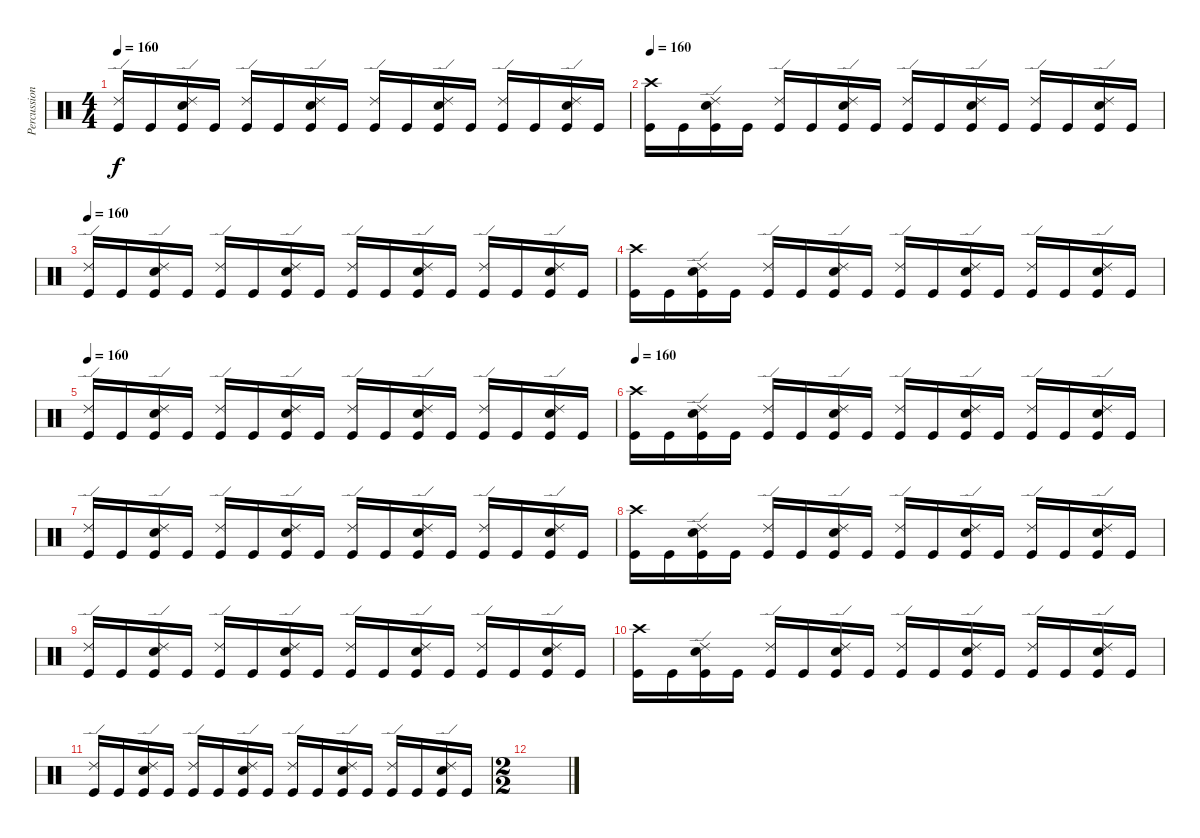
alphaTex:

\track ("Percussion(Satish)" "Percussion") {instrument percussion}
\staff {score}
\articulation defaults
\ts (4 4)
\tempo 160
\clef neutral
\ks c
("Ride (edge) 2" "Kick (hit)").16{dy f} "Kick (hit)".16 ("Ride (edge) 2" "Electric Snare (hit)" "Kick (hit)").16 "Kick (hit)".16 ("Ride (edge) 2" "Kick (hit)").16 "Kick (hit)".16 ("Ride (edge) 2" "Electric Snare (hit)" "Kick (hit)").16 "Kick (hit)".16 ("Ride (edge) 2" "Kick (hit)").16 "Kick (hit)".16 ("Ride (edge) 2" "Electric Snare (hit)" "Kick (hit)").16 "Kick (hit)".16 ("Ride (edge) 2" "Kick (hit)").16 "Kick (hit)".16 ("Ride (edge) 2" "Electric Snare (hit)" "Kick (hit)").16 "Kick (hit)".16 |
\tempo 160
("Crash high (hit)" "Kick (hit)").16 "Kick (hit)".16 ("Ride (edge) 2" "Electric Snare (hit)" "Kick (hit)").16 "Kick (hit)".16 ("Ride (edge) 2" "Kick (hit)").16 "Kick (hit)".16 ("Ride (edge) 2" "Electric Snare (hit)" "Kick (hit)").16 "Kick (hit)".16 ("Ride (edge) 2" "Kick (hit)").16 "Kick (hit)".16 ("Ride (edge) 2" "Electric Snare (hit)" "Kick (hit)").16 "Kick (hit)".16 ("Ride (edge) 2" "Kick (hit)").16 "Kick (hit)".16 ("Ride (edge) 2" "Electric Snare (hit)" "Kick (hit)").16 "Kick (hit)".16 |
\tempo 160
("Ride (edge) 2" "Kick (hit)").16 "Kick (hit)".16 ("Ride (edge) 2" "Electric Snare (hit)" "Kick (hit)").16 "Kick (hit)".16 ("Ride (edge) 2" "Kick (hit)").16 "Kick (hit)".16 ("Ride (edge) 2" "Electric Snare (hit)" "Kick (hit)").16 "Kick (hit)".16 ("Ride (edge) 2" "Kick (hit)").16 "Kick (hit)".16 ("Ride (edge) 2" "Electric Snare (hit)" "Kick (hit)").16 "Kick (hit)".16 ("Ride (edge) 2" "Kick (hit)").16 "Kick (hit)".16 ("Ride (edge) 2" "Electric Snare (hit)" "Kick (hit)").16 "Kick (hit)".16 |
("Crash high (hit)" "Kick (hit)").16 "Kick (hit)".16 ("Ride (edge) 2" "Electric Snare (hit)" "Kick (hit)").16 "Kick (hit)".16 ("Ride (edge) 2" "Kick (hit)").16 "Kick (hit)".16 ("Ride (edge) 2" "Electric Snare (hit)" "Kick (hit)").16 "Kick (hit)".16 ("Ride (edge) 2" "Kick (hit)").16 "Kick (hit)".16 ("Ride (edge) 2" "Electric Snare (hit)" "Kick (hit)").16 "Kick (hit)".16 ("Ride (edge) 2" "Kick (hit)").16 "Kick (hit)".16 ("Ride (edge) 2" "Electric Snare (hit)" "Kick (hit)").16 "Kick (hit)".16 |
\tempo 160
("Ride (edge) 2" "Kick (hit)").16 "Kick (hit)".16 ("Ride (edge) 2" "Electric Snare (hit)" "Kick (hit)").16 "Kick (hit)".16 ("Ride (edge) 2" "Kick (hit)").16 "Kick (hit)".16 ("Ride (edge) 2" "Electric Snare (hit)" "Kick (hit)").16 "Kick (hit)".16 ("Ride (edge) 2" "Kick (hit)").16 "Kick (hit)".16 ("Ride (edge) 2" "Electric Snare (hit)" "Kick (hit)").16 "Kick (hit)".16 ("Ride (edge) 2" "Kick (hit)").16 "Kick (hit)".16 ("Ride (edge) 2" "Electric Snare (hit)" "Kick (hit)").16 "Kick (hit)".16 |
\tempo 160
("Crash high (hit)" "Kick (hit)").16 "Kick (hit)".16 ("Ride (edge) 2" "Electric Snare (hit)" "Kick (hit)").16 "Kick (hit)".16 ("Ride (edge) 2" "Kick (hit)").16 "Kick (hit)".16 ("Ride (edge) 2" "Electric Snare (hit)" "Kick (hit)").16 "Kick (hit)".16 ("Ride (edge) 2" "Kick (hit)").16 "Kick (hit)".16 ("Ride (edge) 2" "Electric Snare (hit)" "Kick (hit)").16 "Kick (hit)".16 ("Ride (edge) 2" "Kick (hit)").16 "Kick (hit)".16 ("Ride (edge) 2" "Electric Snare (hit)" "Kick (hit)").16 "Kick (hit)".16 |
("Ride (edge) 2" "Kick (hit)").16 "Kick (hit)".16 ("Ride (edge) 2" "Electric Snare (hit)" "Kick (hit)").16 "Kick (hit)".16 ("Ride (edge) 2" "Kick (hit)").16 "Kick (hit)".16 ("Ride (edge) 2" "Electric Snare (hit)" "Kick (hit)").16 "Kick (hit)".16 ("Ride (edge) 2" "Kick (hit)").16 "Kick (hit)".16 ("Ride (edge) 2" "Electric Snare (hit)" "Kick (hit)").16 "Kick (hit)".16 ("Ride (edge) 2" "Kick (hit)").16 "Kick (hit)".16 ("Ride (edge) 2" "Electric Snare (hit)" "Kick (hit)").16 "Kick (hit)".16 |
("Crash high (hit)" "Kick (hit)").16 "Kick (hit)".16 ("Ride (edge) 2" "Electric Snare (hit)" "Kick (hit)").16 "Kick (hit)".16 ("Ride (edge) 2" "Kick (hit)").16 "Kick (hit)".16 ("Ride (edge) 2" "Electric Snare (hit)" "Kick (hit)").16 "Kick (hit)".16 ("Ride (edge) 2" "Kick (hit)").16 "Kick (hit)".16 ("Ride (edge) 2" "Electric Snare (hit)" "Kick (hit)").16 "Kick (hit)".16 ("Ride (edge) 2" "Kick (hit)").16 "Kick (hit)".16 ("Ride (edge) 2" "Electric Snare (hit)" "Kick (hit)").16 "Kick (hit)".16 |
("Ride (edge) 2" "Kick (hit)").16 "Kick (hit)".16 ("Ride (edge) 2" "Electric Snare (hit)" "Kick (hit)").16 "Kick (hit)".16 ("Ride (edge) 2" "Kick (hit)").16 "Kick (hit)".16 ("Ride (edge) 2" "Electric Snare (hit)" "Kick (hit)").16 "Kick (hit)".16 ("Ride (edge) 2" "Kick (hit)").16 "Kick (hit)".16 ("Ride (edge) 2" "Electric Snare (hit)" "Kick (hit)").16 "Kick (hit)".16 ("Ride (edge) 2" "Kick (hit)").16 "Kick (hit)".16 ("Ride (edge) 2" "Electric Snare (hit)" "Kick (hit)").16 "Kick (hit)".16 |
("Crash high (hit)" "Kick (hit)").16 "Kick (hit)".16 ("Ride (edge) 2" "Electric Snare (hit)" "Kick (hit)").16 "Kick (hit)".16 ("Ride (edge) 2" "Kick (hit)").16 "Kick (hit)".16 ("Ride (edge) 2" "Electric Snare (hit)" "Kick (hit)").16 "Kick (hit)".16 ("Ride (edge) 2" "Kick (hit)").16 "Kick (hit)".16 ("Ride (edge) 2" "Electric Snare (hit)" "Kick (hit)").16 "Kick (hit)".16 ("Ride (edge) 2" "Kick (hit)").16 "Kick (hit)".16 ("Ride (edge) 2" "Electric Snare (hit)" "Kick (hit)").16 "Kick (hit)".16 |
("Ride (edge) 2" "Kick (hit)").16 "Kick (hit)".16 ("Ride (edge) 2" "Electric Snare (hit)" "Kick (hit)").16 "Kick (hit)".16 ("Ride (edge) 2" "Kick (hit)").16 "Kick (hit)".16 ("Ride (edge) 2" "Electric Snare (hit)" "Kick (hit)").16 "Kick (hit)".16 ("Ride (edge) 2" "Kick (hit)").16 "Kick (hit)".16 ("Ride (edge) 2" "Electric Snare (hit)" "Kick (hit)").16 "Kick (hit)".16 ("Ride (edge) 2" "Kick (hit)").16 "Kick (hit)".16 ("Ride (edge) 2" "Electric Snare (hit)" "Kick (hit)").16 "Kick (hit)".16 |
\ts (2 2)
